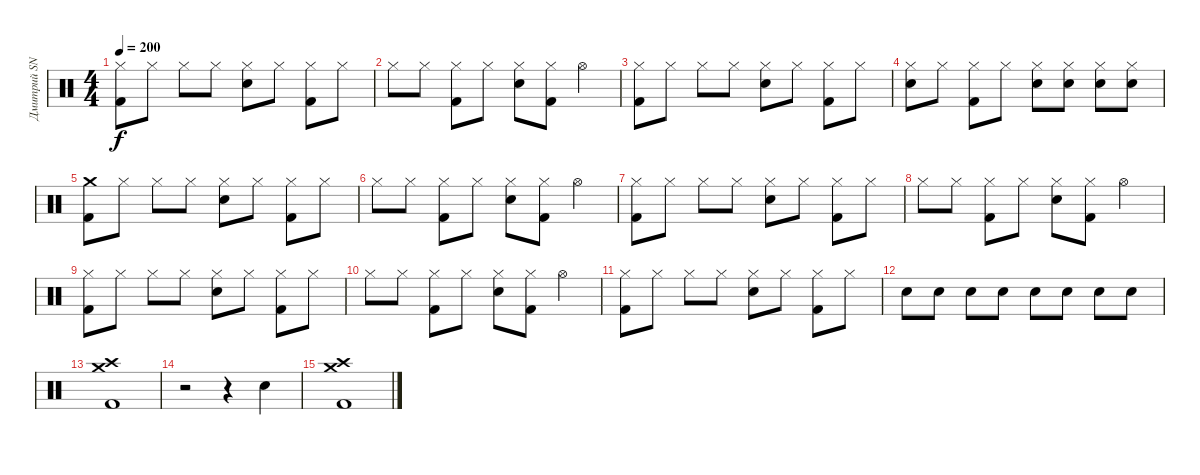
\track ("Дмитрий SNAKE Хакимов" "Дмитрий SN") {instrument percussion}
\staff {score}
\articulation defaults
\ts (4 4)
\tempo 200
\clef neutral
\ks c
("Hi-Hat (closed)" "Kick (hit) 2").8{dy f} "Hi-Hat (closed)".8 "Hi-Hat (closed)".8 "Hi-Hat (closed)".8 ("Hi-Hat (closed)" "Snare (hit) 2").8 "Hi-Hat (closed)".8 ("Hi-Hat (closed)" "Kick (hit) 2").8 "Hi-Hat (closed)".8 |
"Hi-Hat (closed)".8 "Hi-Hat (closed)".8 ("Hi-Hat (closed)" "Kick (hit) 2").8 "Hi-Hat (closed)".8 ("Hi-Hat (closed)" "Snare (hit) 2").8 ("Hi-Hat (closed)" "Kick (hit) 2").8 "Hi-Hat (open)".4 |
("Hi-Hat (closed)" "Kick (hit) 2").8 "Hi-Hat (closed)".8 "Hi-Hat (closed)".8 "Hi-Hat (closed)".8 ("Hi-Hat (closed)" "Snare (hit) 2").8 "Hi-Hat (closed)".8 ("Hi-Hat (closed)" "Kick (hit) 2").8 "Hi-Hat (closed)".8 |
("Hi-Hat (closed)" "Snare (hit) 2").8 "Hi-Hat (closed)".8 ("Hi-Hat (closed)" "Kick (hit) 2").8 "Hi-Hat (closed)".8 ("Hi-Hat (closed)" "Snare (hit) 2").8 ("Hi-Hat (closed)" "Snare (hit) 2").8 ("Hi-Hat (closed)" "Snare (hit) 2").8 ("Hi-Hat (closed)" "Snare (hit) 2").8 |
("Crash medium (hit)" "Kick (hit) 2").8 "Hi-Hat (closed)".8 "Hi-Hat (closed)".8 "Hi-Hat (closed)".8 ("Hi-Hat (closed)" "Snare (hit) 2").8 "Hi-Hat (closed)".8 ("Hi-Hat (closed)" "Kick (hit) 2").8 "Hi-Hat (closed)".8 |
"Hi-Hat (closed)".8 "Hi-Hat (closed)".8 ("Hi-Hat (closed)" "Kick (hit) 2").8 "Hi-Hat (closed)".8 ("Hi-Hat (closed)" "Snare (hit) 2").8 ("Hi-Hat (closed)" "Kick (hit) 2").8 "Hi-Hat (open)".4 |
("Hi-Hat (closed)" "Kick (hit) 2").8 "Hi-Hat (closed)".8 "Hi-Hat (closed)".8 "Hi-Hat (closed)".8 ("Hi-Hat (closed)" "Snare (hit) 2").8 "Hi-Hat (closed)".8 ("Hi-Hat (closed)" "Kick (hit) 2").8 "Hi-Hat (closed)".8 |
"Hi-Hat (closed)".8 "Hi-Hat (closed)".8 ("Hi-Hat (closed)" "Kick (hit) 2").8 "Hi-Hat (closed)".8 ("Hi-Hat (closed)" "Snare (hit) 2").8 ("Hi-Hat (closed)" "Kick (hit) 2").8 "Hi-Hat (open)".4 |
("Hi-Hat (closed)" "Kick (hit) 2").8 "Hi-Hat (closed)".8 "Hi-Hat (closed)".8 "Hi-Hat (closed)".8 ("Hi-Hat (closed)" "Snare (hit) 2").8 "Hi-Hat (closed)".8 ("Hi-Hat (closed)" "Kick (hit) 2").8 "Hi-Hat (closed)".8 |
"Hi-Hat (closed)".8 "Hi-Hat (closed)".8 ("Hi-Hat (closed)" "Kick (hit) 2").8 "Hi-Hat (closed)".8 ("Hi-Hat (closed)" "Snare (hit) 2").8 ("Hi-Hat (closed)" "Kick (hit) 2").8 "Hi-Hat (open)".4 |
("Hi-Hat (closed)" "Kick (hit) 2").8 "Hi-Hat (closed)".8 "Hi-Hat (closed)".8 "Hi-Hat (closed)".8 ("Hi-Hat (closed)" "Snare (hit) 2").8 "Hi-Hat (closed)".8 ("Hi-Hat (closed)" "Kick (hit) 2").8 "Hi-Hat (closed)".8 |
"Snare (hit) 2".8 "Snare (hit) 2".8 "Snare (hit) 2".8 "Snare (hit) 2".8 "Snare (hit) 2".8 "Snare (hit) 2".8 "Snare (hit) 2".8 "Snare (hit) 2".8 |
("Crash high (hit)" "Crash medium (hit)" "Kick (hit) 2").1 |
r.2 r.4 "Snare (hit) 2".4 |
("Crash high (hit)" "Crash medium (hit)" "Kick (hit) 2").1
